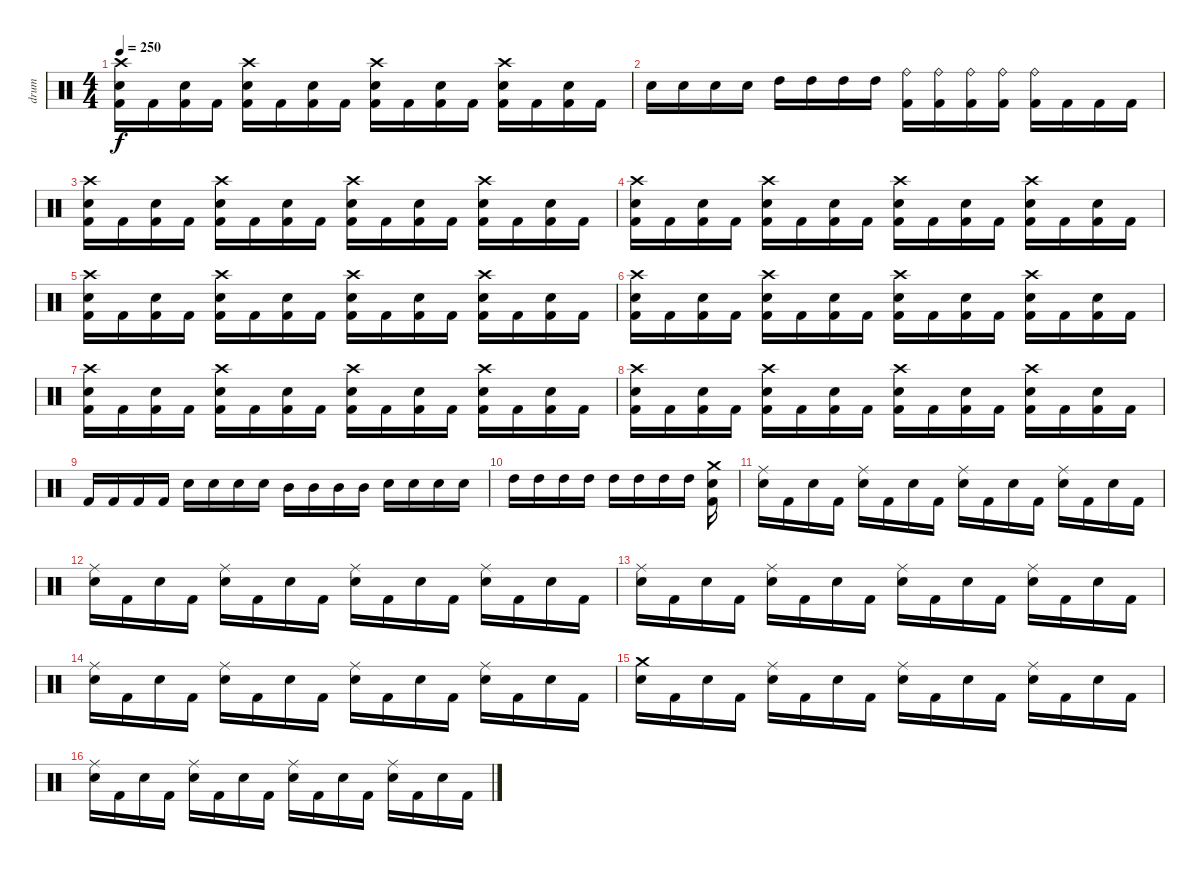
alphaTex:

\track ("drum" "drum") {instrument percussion}
\staff {score}
\articulation defaults
\ts (4 4)
\tempo 250
\clef neutral
\ks c
("Crash high (hit)" "Snare (hit) 2" "Kick (hit) 2").16{dy f} "Kick (hit) 2".16 ("Snare (hit) 2" "Kick (hit) 2").16 "Kick (hit) 2".16 ("Crash high (hit)" "Snare (hit) 2" "Kick (hit) 2").16 "Kick (hit) 2".16 ("Snare (hit) 2" "Kick (hit) 2").16 "Kick (hit) 2".16 ("Crash high (hit)" "Snare (hit) 2" "Kick (hit) 2").16 "Kick (hit) 2".16 ("Snare (hit) 2" "Kick (hit) 2").16 "Kick (hit) 2".16 ("Crash high (hit)" "Snare (hit) 2" "Kick (hit) 2").16 "Kick (hit) 2".16 ("Snare (hit) 2" "Kick (hit) 2").16 "Kick (hit) 2".16 |
"Snare (hit) 2".16 "Snare (hit) 2".16 "Snare (hit) 2".16 "Snare (hit) 2".16 "High Tom (hit)".16 "High Tom (hit)".16 "High Tom (hit)".16 "High Tom (hit)".16 ("Ride (bell)" "Kick (hit) 2").16 ("Ride (bell)" "Kick (hit) 2").16 ("Ride (bell)" "Kick (hit) 2").16 ("Ride (bell)" "Kick (hit) 2").16 ("Ride (bell)" "Kick (hit) 2").16 "Kick (hit) 2".16 "Kick (hit) 2".16 "Kick (hit) 2".16 |
("Crash high (hit)" "Snare (hit) 2" "Kick (hit) 2").16 "Kick (hit) 2".16 ("Snare (hit) 2" "Kick (hit) 2").16 "Kick (hit) 2".16 ("Crash high (hit)" "Snare (hit) 2" "Kick (hit) 2").16 "Kick (hit) 2".16 ("Snare (hit) 2" "Kick (hit) 2").16 "Kick (hit) 2".16 ("Crash high (hit)" "Snare (hit) 2" "Kick (hit) 2").16 "Kick (hit) 2".16 ("Snare (hit) 2" "Kick (hit) 2").16 "Kick (hit) 2".16 ("Crash high (hit)" "Snare (hit) 2" "Kick (hit) 2").16 "Kick (hit) 2".16 ("Snare (hit) 2" "Kick (hit) 2").16 "Kick (hit) 2".16 |
("Crash high (hit)" "Snare (hit) 2" "Kick (hit) 2").16 "Kick (hit) 2".16 ("Snare (hit) 2" "Kick (hit) 2").16 "Kick (hit) 2".16 ("Crash high (hit)" "Snare (hit) 2" "Kick (hit) 2").16 "Kick (hit) 2".16 ("Snare (hit) 2" "Kick (hit) 2").16 "Kick (hit) 2".16 ("Crash high (hit)" "Snare (hit) 2" "Kick (hit) 2").16 "Kick (hit) 2".16 ("Snare (hit) 2" "Kick (hit) 2").16 "Kick (hit) 2".16 ("Crash high (hit)" "Snare (hit) 2" "Kick (hit) 2").16 "Kick (hit) 2".16 ("Snare (hit) 2" "Kick (hit) 2").16 "Kick (hit) 2".16 |
("Crash high (hit)" "Snare (hit) 2" "Kick (hit) 2").16 "Kick (hit) 2".16 ("Snare (hit) 2" "Kick (hit) 2").16 "Kick (hit) 2".16 ("Crash high (hit)" "Snare (hit) 2" "Kick (hit) 2").16 "Kick (hit) 2".16 ("Snare (hit) 2" "Kick (hit) 2").16 "Kick (hit) 2".16 ("Crash high (hit)" "Snare (hit) 2" "Kick (hit) 2").16 "Kick (hit) 2".16 ("Snare (hit) 2" "Kick (hit) 2").16 "Kick (hit) 2".16 ("Crash high (hit)" "Snare (hit) 2" "Kick (hit) 2").16 "Kick (hit) 2".16 ("Snare (hit) 2" "Kick (hit) 2").16 "Kick (hit) 2".16 |
("Crash high (hit)" "Snare (hit) 2" "Kick (hit) 2").16 "Kick (hit) 2".16 ("Snare (hit) 2" "Kick (hit) 2").16 "Kick (hit) 2".16 ("Crash high (hit)" "Snare (hit) 2" "Kick (hit) 2").16 "Kick (hit) 2".16 ("Snare (hit) 2" "Kick (hit) 2").16 "Kick (hit) 2".16 ("Crash high (hit)" "Snare (hit) 2" "Kick (hit) 2").16 "Kick (hit) 2".16 ("Snare (hit) 2" "Kick (hit) 2").16 "Kick (hit) 2".16 ("Crash high (hit)" "Snare (hit) 2" "Kick (hit) 2").16 "Kick (hit) 2".16 ("Snare (hit) 2" "Kick (hit) 2").16 "Kick (hit) 2".16 |
("Crash high (hit)" "Snare (hit) 2" "Kick (hit) 2").16 "Kick (hit) 2".16 ("Snare (hit) 2" "Kick (hit) 2").16 "Kick (hit) 2".16 ("Crash high (hit)" "Snare (hit) 2" "Kick (hit) 2").16 "Kick (hit) 2".16 ("Snare (hit) 2" "Kick (hit) 2").16 "Kick (hit) 2".16 ("Crash high (hit)" "Snare (hit) 2" "Kick (hit) 2").16 "Kick (hit) 2".16 ("Snare (hit) 2" "Kick (hit) 2").16 "Kick (hit) 2".16 ("Crash high (hit)" "Snare (hit) 2" "Kick (hit) 2").16 "Kick (hit) 2".16 ("Snare (hit) 2" "Kick (hit) 2").16 "Kick (hit) 2".16 |
("Crash high (hit)" "Snare (hit) 2" "Kick (hit) 2").16 "Kick (hit) 2".16 ("Snare (hit) 2" "Kick (hit) 2").16 "Kick (hit) 2".16 ("Crash high (hit)" "Snare (hit) 2" "Kick (hit) 2").16 "Kick (hit) 2".16 ("Snare (hit) 2" "Kick (hit) 2").16 "Kick (hit) 2".16 ("Crash high (hit)" "Snare (hit) 2" "Kick (hit) 2").16 "Kick (hit) 2".16 ("Snare (hit) 2" "Kick (hit) 2").16 "Kick (hit) 2".16 ("Crash high (hit)" "Snare (hit) 2" "Kick (hit) 2").16 "Kick (hit) 2".16 ("Snare (hit) 2" "Kick (hit) 2").16 "Kick (hit) 2".16 |
"Kick (hit) 2".16 "Kick (hit) 2".16 "Kick (hit) 2".16 "Kick (hit) 2".16 "Snare (hit) 2".16 "Snare (hit) 2".16 "Snare (hit) 2".16 "Snare (hit) 2".16 "Mid Tom (hit)".16 "Mid Tom (hit)".16 "Mid Tom (hit)".16 "Mid Tom (hit)".16 "Snare (hit) 2".16 "Snare (hit) 2".16 "Snare (hit) 2".16 "Snare (hit) 2".16 |
"High Tom (hit)".16 "High Tom (hit)".16 "High Tom (hit)".16 "High Tom (hit)".16 "High Tom (hit)".16 "High Tom (hit)".16 "High Tom (hit)".16 "High Tom (hit)".16 ("Crash medium (hit)" "Snare (hit) 2" "Kick (hit) 2").16 |
("Ride (middle)" "Snare (hit) 2").16 "Kick (hit) 2".16 "Snare (hit) 2".16 "Kick (hit) 2".16 ("Ride (middle)" "Snare (hit) 2").16 "Kick (hit) 2".16 "Snare (hit) 2".16 "Kick (hit) 2".16 ("Ride (middle)" "Snare (hit) 2").16 "Kick (hit) 2".16 "Snare (hit) 2".16 "Kick (hit) 2".16 ("Ride (middle)" "Snare (hit) 2").16 "Kick (hit) 2".16 "Snare (hit) 2".16 "Kick (hit) 2".16 |
("Ride (middle)" "Snare (hit) 2").16 "Kick (hit) 2".16 "Snare (hit) 2".16 "Kick (hit) 2".16 ("Ride (middle)" "Snare (hit) 2").16 "Kick (hit) 2".16 "Snare (hit) 2".16 "Kick (hit) 2".16 ("Ride (middle)" "Snare (hit) 2").16 "Kick (hit) 2".16 "Snare (hit) 2".16 "Kick (hit) 2".16 ("Ride (middle)" "Snare (hit) 2").16 "Kick (hit) 2".16 "Snare (hit) 2".16 "Kick (hit) 2".16 |
("Ride (middle)" "Snare (hit) 2").16 "Kick (hit) 2".16 "Snare (hit) 2".16 "Kick (hit) 2".16 ("Ride (middle)" "Snare (hit) 2").16 "Kick (hit) 2".16 "Snare (hit) 2".16 "Kick (hit) 2".16 ("Ride (middle)" "Snare (hit) 2").16 "Kick (hit) 2".16 "Snare (hit) 2".16 "Kick (hit) 2".16 ("Ride (middle)" "Snare (hit) 2").16 "Kick (hit) 2".16 "Snare (hit) 2".16 "Kick (hit) 2".16 |
("Ride (middle)" "Snare (hit) 2").16 "Kick (hit) 2".16 "Snare (hit) 2".16 "Kick (hit) 2".16 ("Ride (middle)" "Snare (hit) 2").16 "Kick (hit) 2".16 "Snare (hit) 2".16 "Kick (hit) 2".16 ("Ride (middle)" "Snare (hit) 2").16 "Kick (hit) 2".16 "Snare (hit) 2".16 "Kick (hit) 2".16 ("Ride (middle)" "Snare (hit) 2").16 "Kick (hit) 2".16 "Snare (hit) 2".16 "Kick (hit) 2".16 |
("Crash medium (hit)" "Snare (hit) 2").16 "Kick (hit) 2".16 "Snare (hit) 2".16 "Kick (hit) 2".16 ("Ride (middle)" "Snare (hit) 2").16 "Kick (hit) 2".16 "Snare (hit) 2".16 "Kick (hit) 2".16 ("Ride (middle)" "Snare (hit) 2").16 "Kick (hit) 2".16 "Snare (hit) 2".16 "Kick (hit) 2".16 ("Ride (middle)" "Snare (hit) 2").16 "Kick (hit) 2".16 "Snare (hit) 2".16 "Kick (hit) 2".16 |
("Ride (middle)" "Snare (hit) 2").16 "Kick (hit) 2".16 "Snare (hit) 2".16 "Kick (hit) 2".16 ("Ride (middle)" "Snare (hit) 2").16 "Kick (hit) 2".16 "Snare (hit) 2".16 "Kick (hit) 2".16 ("Ride (middle)" "Snare (hit) 2").16 "Kick (hit) 2".16 "Snare (hit) 2".16 "Kick (hit) 2".16 ("Ride (middle)" "Snare (hit) 2").16 "Kick (hit) 2".16 "Snare (hit) 2".16 "Kick (hit) 2".16
